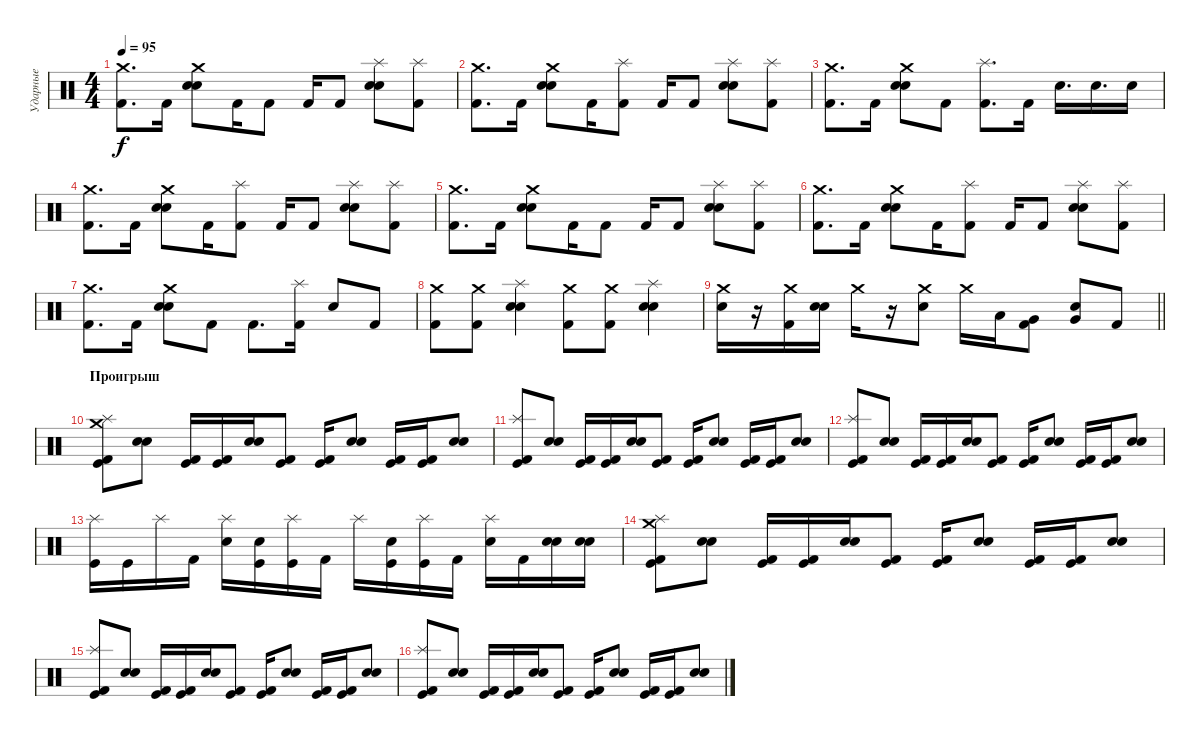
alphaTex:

\track ("Ударные" "Ударные") {instrument percussion}
\staff {score}
\articulation defaults
\ts (4 4)
\tempo 95
\clef neutral
\ks c
("Crash medium (hit)" "Kick (hit) 2").8{d dy f} "Kick (hit) 2".16 ("Crash medium (hit)" "Electric Snare (hit)" "Snare (hit) 2").8 "Kick (hit) 2".16 "Kick (hit) 2".8 "Kick (hit) 2".16 "Kick (hit) 2".8 ("Splash (hit)" "Electric Snare (hit)" "Snare (hit) 2").8 ("Splash (hit)" "Kick (hit) 2").8 |
("Crash medium (hit)" "Kick (hit) 2").8{d} "Kick (hit) 2".16 ("Crash medium (hit)" "Electric Snare (hit)" "Snare (hit) 2").8 "Kick (hit) 2".16 ("Splash (hit)" "Kick (hit) 2").8 "Kick (hit) 2".16 "Kick (hit) 2".8 ("Splash (hit)" "Electric Snare (hit)" "Snare (hit) 2").8 ("Splash (hit)" "Kick (hit) 2").8 |
("Crash medium (hit)" "Kick (hit) 2").8{d} "Kick (hit) 2".16 ("Crash medium (hit)" "Electric Snare (hit)" "Snare (hit) 2").8 "Kick (hit) 2".8 ("Splash (hit)" "Kick (hit) 2").8{d} "Kick (hit) 2".16 "Electric Snare (hit)".16{d} "Electric Snare (hit)".16{d} "Electric Snare (hit)".16 |
("Crash medium (hit)" "Kick (hit) 2").8{d} "Kick (hit) 2".16 ("Crash medium (hit)" "Electric Snare (hit)" "Snare (hit) 2").8 "Kick (hit) 2".16 ("Splash (hit)" "Kick (hit) 2").8 "Kick (hit) 2".16 "Kick (hit) 2".8 ("Splash (hit)" "Electric Snare (hit)" "Snare (hit) 2").8 ("Splash (hit)" "Kick (hit) 2").8 |
("Crash medium (hit)" "Kick (hit) 2").8{d} "Kick (hit) 2".16 ("Crash medium (hit)" "Electric Snare (hit)" "Snare (hit) 2").8 "Kick (hit) 2".16 "Kick (hit) 2".8 "Kick (hit) 2".16 "Kick (hit) 2".8 ("Splash (hit)" "Electric Snare (hit)" "Snare (hit) 2").8 ("Splash (hit)" "Kick (hit) 2").8 |
("Crash medium (hit)" "Kick (hit) 2").8{d} "Kick (hit) 2".16 ("Crash medium (hit)" "Electric Snare (hit)" "Snare (hit) 2").8 "Kick (hit) 2".16 ("Splash (hit)" "Kick (hit) 2").8 "Kick (hit) 2".16 "Kick (hit) 2".8 ("Splash (hit)" "Electric Snare (hit)" "Snare (hit) 2").8 ("Splash (hit)" "Kick (hit) 2").8 |
("Crash medium (hit)" "Kick (hit) 2").8{d} "Kick (hit) 2".16 ("Crash medium (hit)" "Electric Snare (hit)" "Snare (hit) 2").8 "Kick (hit) 2".8 "Kick (hit) 2".8{d} ("Splash (hit)" "Kick (hit) 2").16 "Electric Snare (hit)".8 "Kick (hit) 2".8 |
("Crash medium (hit)" "Kick (hit) 2").8 ("Crash medium (hit)" "Kick (hit) 2").8 ("Splash (hit)" "Electric Snare (hit)" "Snare (hit) 2").4 ("Crash medium (hit)" "Kick (hit) 2").8 ("Crash medium (hit)" "Kick (hit) 2").8 ("Splash (hit)" "Electric Snare (hit)" "Snare (hit) 2").4 |
\barLineRight lightlight
("Crash medium (hit)" "Snare (hit) 2").16 r.16 ("Crash medium (hit)" "Kick (hit) 2").16 ("Electric Snare (hit)" "Snare (hit) 2").16 "Crash medium (hit)".16 r.16 ("Crash medium (hit)" "Electric Snare (hit)").8 "Crash medium (hit)".16 "Low Tom (hit)".16 ("Very Low Tom (hit)" "Kick (hit) 2").8 ("Very Low Tom (hit)" "Electric Snare (hit)").8 "Kick (hit) 2".8 |
\section ("" "Проигрыш")
("Crash medium (hit)" "Splash (hit)" "Kick (hit)" "Kick (hit) 2").8 ("Electric Snare (hit)" "Snare (hit) 2").8 ("Kick (hit)" "Kick (hit) 2").16 ("Kick (hit)" "Kick (hit) 2").16 ("Electric Snare (hit)" "Snare (hit) 2").16 ("Kick (hit)" "Kick (hit) 2").8 ("Kick (hit)" "Kick (hit) 2").16 ("Electric Snare (hit)" "Snare (hit) 2").8 ("Kick (hit)" "Kick (hit) 2").16 ("Kick (hit)" "Kick (hit) 2").16 ("Electric Snare (hit)" "Snare (hit) 2").8 |
("Splash (hit)" "Kick (hit)" "Kick (hit) 2").8 ("Electric Snare (hit)" "Snare (hit) 2").8 ("Kick (hit)" "Kick (hit) 2").16 ("Kick (hit)" "Kick (hit) 2").16 ("Electric Snare (hit)" "Snare (hit) 2").16 ("Kick (hit)" "Kick (hit) 2").8 ("Kick (hit)" "Kick (hit) 2").16 ("Electric Snare (hit)" "Snare (hit) 2").8 ("Kick (hit)" "Kick (hit) 2").16 ("Kick (hit)" "Kick (hit) 2").16 ("Electric Snare (hit)" "Snare (hit) 2").8 |
("Splash (hit)" "Kick (hit)" "Kick (hit) 2").8 ("Electric Snare (hit)" "Snare (hit) 2").8 ("Kick (hit)" "Kick (hit) 2").16 ("Kick (hit)" "Kick (hit) 2").16 ("Electric Snare (hit)" "Snare (hit) 2").16 ("Kick (hit)" "Kick (hit) 2").8 ("Kick (hit)" "Kick (hit) 2").16 ("Electric Snare (hit)" "Snare (hit) 2").8 ("Kick (hit)" "Kick (hit) 2").16 ("Kick (hit)" "Kick (hit) 2").16 ("Electric Snare (hit)" "Snare (hit) 2").8 |
("Splash (hit)" "Kick (hit)").16 "Kick (hit)".16 "Splash (hit)".16 "Kick (hit) 2".16 ("Splash (hit)" "Electric Snare (hit)").16 ("Electric Snare (hit)" "Kick (hit)").16 ("Splash (hit)" "Kick (hit)").16 "Kick (hit) 2".16 "Splash (hit)".16 ("Electric Snare (hit)" "Kick (hit)").16 ("Splash (hit)" "Kick (hit)").16 "Kick (hit) 2".16 ("Splash (hit)" "Electric Snare (hit)").16 "Kick (hit) 2".16 ("Electric Snare (hit)" "Snare (hit) 2").16 ("Electric Snare (hit)" "Snare (hit) 2").16 |
("Crash medium (hit)" "Splash (hit)" "Kick (hit)" "Kick (hit) 2").8 ("Electric Snare (hit)" "Snare (hit) 2").8 ("Kick (hit)" "Kick (hit) 2").16 ("Kick (hit)" "Kick (hit) 2").16 ("Electric Snare (hit)" "Snare (hit) 2").16 ("Kick (hit)" "Kick (hit) 2").8 ("Kick (hit)" "Kick (hit) 2").16 ("Electric Snare (hit)" "Snare (hit) 2").8 ("Kick (hit)" "Kick (hit) 2").16 ("Kick (hit)" "Kick (hit) 2").16 ("Electric Snare (hit)" "Snare (hit) 2").8 |
("Splash (hit)" "Kick (hit)" "Kick (hit) 2").8 ("Electric Snare (hit)" "Snare (hit) 2").8 ("Kick (hit)" "Kick (hit) 2").16 ("Kick (hit)" "Kick (hit) 2").16 ("Electric Snare (hit)" "Snare (hit) 2").16 ("Kick (hit)" "Kick (hit) 2").8 ("Kick (hit)" "Kick (hit) 2").16 ("Electric Snare (hit)" "Snare (hit) 2").8 ("Kick (hit)" "Kick (hit) 2").16 ("Kick (hit)" "Kick (hit) 2").16 ("Electric Snare (hit)" "Snare (hit) 2").8 |
("Splash (hit)" "Kick (hit)" "Kick (hit) 2").8 ("Electric Snare (hit)" "Snare (hit) 2").8 ("Kick (hit)" "Kick (hit) 2").16 ("Kick (hit)" "Kick (hit) 2").16 ("Electric Snare (hit)" "Snare (hit) 2").16 ("Kick (hit)" "Kick (hit) 2").8 ("Kick (hit)" "Kick (hit) 2").16 ("Electric Snare (hit)" "Snare (hit) 2").8 ("Kick (hit)" "Kick (hit) 2").16 ("Kick (hit)" "Kick (hit) 2").16 ("Electric Snare (hit)" "Snare (hit) 2").8
